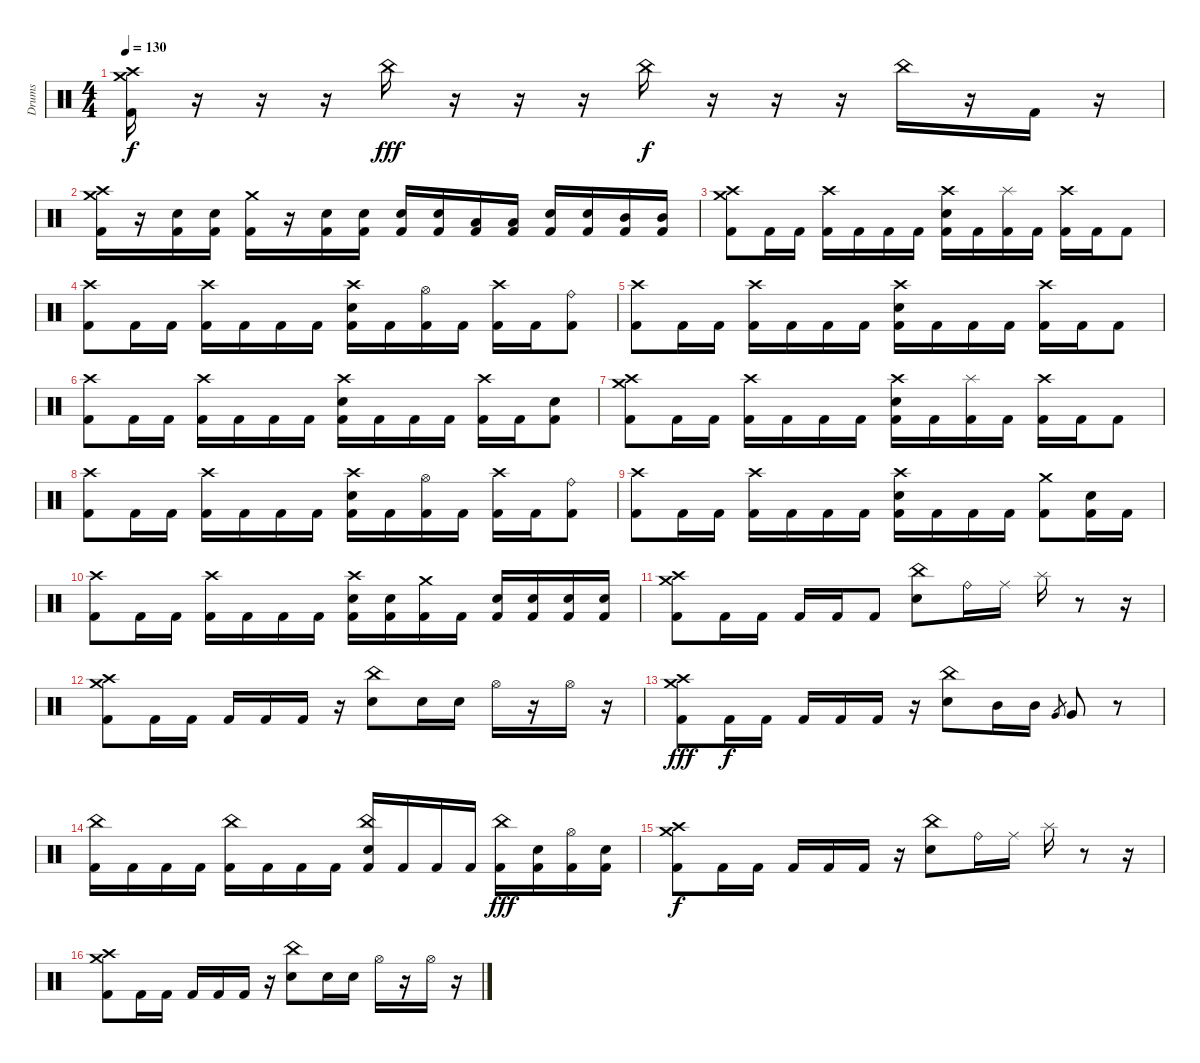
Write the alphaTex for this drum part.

\track ("Drums" "Drums") {instrument percussion}
\staff {score}
\articulation defaults
\ts (4 4)
\tempo 130
\clef neutral
\ks c
("Crash high (hit)" "Crash medium (hit)" "Kick (hit) 2").16{dy f} r.16 r.16 r.16 "China (hit)".16{dy fff} r.16 r.16 r.16 "China (hit)".16{dy f} r.16 r.16 r.16 "China (hit)".16 r.16 "Kick (hit) 2".16 r.16 |
("Crash medium (hit)" "Crash high (hit)" "Kick (hit) 2").16 r.16 ("Electric Snare (hit)" "Kick (hit) 2").16 ("Electric Snare (hit)" "Kick (hit) 2").16 ("Crash medium (hit)" "Kick (hit) 2").16 r.16 ("Electric Snare (hit)" "Kick (hit) 2").16 ("Electric Snare (hit)" "Kick (hit) 2").16 ("Electric Snare (hit)" "Kick (hit) 2").16 ("Electric Snare (hit)" "Kick (hit) 2").16 ("Low Tom (hit)" "Kick (hit) 2").16 ("Low Tom (hit)" "Kick (hit) 2").16 ("Electric Snare (hit)" "Kick (hit) 2").16 ("Electric Snare (hit)" "Kick (hit) 2").16 ("Mid Tom (hit)" "Kick (hit) 2").16 ("Mid Tom (hit)" "Kick (hit) 2").16 |
("Crash high (hit)" "Crash medium (hit)" "Kick (hit) 2").8 "Kick (hit) 2".16 "Kick (hit) 2".16 ("Crash high (hit)" "Kick (hit) 2").16 "Kick (hit) 2".16 "Kick (hit) 2".16 "Kick (hit) 2".16 ("Crash high (hit)" "Electric Snare (hit)" "Kick (hit) 2").16 "Kick (hit) 2".16 ("Splash (hit)" "Kick (hit) 2").16 "Kick (hit) 2".16 ("Crash high (hit)" "Kick (hit) 2").16 "Kick (hit) 2".16 "Kick (hit) 2".8 |
("Crash high (hit)" "Kick (hit) 2").8 "Kick (hit) 2".16 "Kick (hit) 2".16 ("Crash high (hit)" "Kick (hit) 2").16 "Kick (hit) 2".16 "Kick (hit) 2".16 "Kick (hit) 2".16 ("Crash high (hit)" "Electric Snare (hit)" "Kick (hit) 2").16 "Kick (hit) 2".16 ("Hi-Hat (open)" "Kick (hit) 2").16 "Kick (hit) 2".16 ("Crash high (hit)" "Kick (hit) 2").16 "Kick (hit) 2".16 ("Ride (bell)" "Kick (hit) 2").8 |
("Crash high (hit)" "Kick (hit) 2").8 "Kick (hit) 2".16 "Kick (hit) 2".16 ("Crash high (hit)" "Kick (hit) 2").16 "Kick (hit) 2".16 "Kick (hit) 2".16 "Kick (hit) 2".16 ("Crash high (hit)" "Electric Snare (hit)" "Kick (hit) 2").16 "Kick (hit) 2".16 "Kick (hit) 2".16 "Kick (hit) 2".16 ("Crash high (hit)" "Kick (hit) 2").16 "Kick (hit) 2".16 "Kick (hit) 2".8 |
("Crash high (hit)" "Kick (hit) 2").8 "Kick (hit) 2".16 "Kick (hit) 2".16 ("Crash high (hit)" "Kick (hit) 2").16 "Kick (hit) 2".16 "Kick (hit) 2".16 "Kick (hit) 2".16 ("Crash high (hit)" "Electric Snare (hit)" "Kick (hit) 2").16 "Kick (hit) 2".16 "Kick (hit) 2".16 "Kick (hit) 2".16 ("Crash high (hit)" "Kick (hit) 2").16 "Kick (hit) 2".16 ("Electric Snare (hit)" "Kick (hit) 2").8 |
("Crash high (hit)" "Crash medium (hit)" "Kick (hit) 2").8 "Kick (hit) 2".16 "Kick (hit) 2".16 ("Crash high (hit)" "Kick (hit) 2").16 "Kick (hit) 2".16 "Kick (hit) 2".16 "Kick (hit) 2".16 ("Crash high (hit)" "Electric Snare (hit)" "Kick (hit) 2").16 "Kick (hit) 2".16 ("Splash (hit)" "Kick (hit) 2").16 "Kick (hit) 2".16 ("Crash high (hit)" "Kick (hit) 2").16 "Kick (hit) 2".16 "Kick (hit) 2".8 |
("Crash high (hit)" "Kick (hit) 2").8 "Kick (hit) 2".16 "Kick (hit) 2".16 ("Crash high (hit)" "Kick (hit) 2").16 "Kick (hit) 2".16 "Kick (hit) 2".16 "Kick (hit) 2".16 ("Crash high (hit)" "Electric Snare (hit)" "Kick (hit) 2").16 "Kick (hit) 2".16 ("Hi-Hat (open)" "Kick (hit) 2").16 "Kick (hit) 2".16 ("Crash high (hit)" "Kick (hit) 2").16 "Kick (hit) 2".16 ("Ride (bell)" "Kick (hit) 2").8 |
("Crash high (hit)" "Kick (hit) 2").8 "Kick (hit) 2".16 "Kick (hit) 2".16 ("Crash high (hit)" "Kick (hit) 2").16 "Kick (hit) 2".16 "Kick (hit) 2".16 "Kick (hit) 2".16 ("Crash high (hit)" "Electric Snare (hit)" "Kick (hit) 2").16 "Kick (hit) 2".16 "Kick (hit) 2".16 "Kick (hit) 2".16 ("Crash medium (hit)" "Kick (hit) 2").8 ("Electric Snare (hit)" "Kick (hit) 2").16 "Kick (hit) 2".16 |
("Crash high (hit)" "Kick (hit) 2").8 "Kick (hit) 2".16 "Kick (hit) 2".16 ("Crash high (hit)" "Kick (hit) 2").16 "Kick (hit) 2".16 "Kick (hit) 2".16 "Kick (hit) 2".16 ("Crash high (hit)" "Electric Snare (hit)" "Kick (hit) 2").16 ("Electric Snare (hit)" "Kick (hit) 2").16 ("Crash medium (hit)" "Kick (hit) 2").16 "Kick (hit) 2".16 ("Electric Snare (hit)" "Kick (hit) 2").16 ("Electric Snare (hit)" "Kick (hit) 2").16 ("Electric Snare (hit)" "Kick (hit) 2").16 ("Electric Snare (hit)" "Kick (hit) 2").16 |
("Crash high (hit)" "Crash medium (hit)" "Kick (hit) 2").8 "Kick (hit) 2".16 "Kick (hit) 2".16 "Kick (hit) 2".16 "Kick (hit) 2".16 "Kick (hit) 2".8 ("China (hit)" "Electric Snare (hit)").8 "Ride (bell)".16 "Ride (middle)".16 "Splash (hit)".16 r.8 r.16 |
("Crash high (hit)" "Crash medium (hit)" "Kick (hit) 2").8 "Kick (hit) 2".16 "Kick (hit) 2".16 "Kick (hit) 2".16 "Kick (hit) 2".16 "Kick (hit) 2".16 r.16 ("China (hit)" "Electric Snare (hit)").8 "Electric Snare (hit)".16 "Electric Snare (hit)".16 "Hi-Hat (open)".16 r.16 "Hi-Hat (open)".16 r.16 |
("Crash high (hit)" "Crash medium (hit)" "Kick (hit) 2").8{dy fff} "Kick (hit) 2".16{dy f} "Kick (hit) 2".16 "Kick (hit) 2".16 "Kick (hit) 2".16 "Kick (hit) 2".16 r.16 ("China (hit)" "Electric Snare (hit)").8 "Mid Tom (hit)".16 "Mid Tom (hit)".16 "Very Low Tom (hit)".8{gr} "Very Low Tom (hit)".8 r.8 |
("China (hit)" "Kick (hit) 2").16 "Kick (hit) 2".16 "Kick (hit) 2".16 "Kick (hit) 2".16 ("China (hit)" "Kick (hit) 2").16 "Kick (hit) 2".16 "Kick (hit) 2".16 "Kick (hit) 2".16 ("China (hit)" "Electric Snare (hit)" "Kick (hit) 2").16 "Kick (hit) 2".16 "Kick (hit) 2".16 "Kick (hit) 2".16 ("China (hit)" "Kick (hit) 2").16{dy fff} ("Electric Snare (hit)" "Kick (hit) 2").16 ("Hi-Hat (open)" "Kick (hit) 2").16 ("Electric Snare (hit)" "Kick (hit) 2").16 |
("Crash high (hit)" "Crash medium (hit)" "Kick (hit) 2").8{dy f} "Kick (hit) 2".16 "Kick (hit) 2".16 "Kick (hit) 2".16 "Kick (hit) 2".16 "Kick (hit) 2".16 r.16 ("China (hit)" "Electric Snare (hit)").8 "Ride (bell)".16 "Ride (middle)".16 "Splash (hit)".16 r.8 r.16 |
("Crash high (hit)" "Crash medium (hit)" "Kick (hit) 2").8 "Kick (hit) 2".16 "Kick (hit) 2".16 "Kick (hit) 2".16 "Kick (hit) 2".16 "Kick (hit) 2".16 r.16 ("China (hit)" "Electric Snare (hit)").8 "Electric Snare (hit)".16 "Electric Snare (hit)".16 "Hi-Hat (open)".16 r.16 "Hi-Hat (open)".16 r.16
